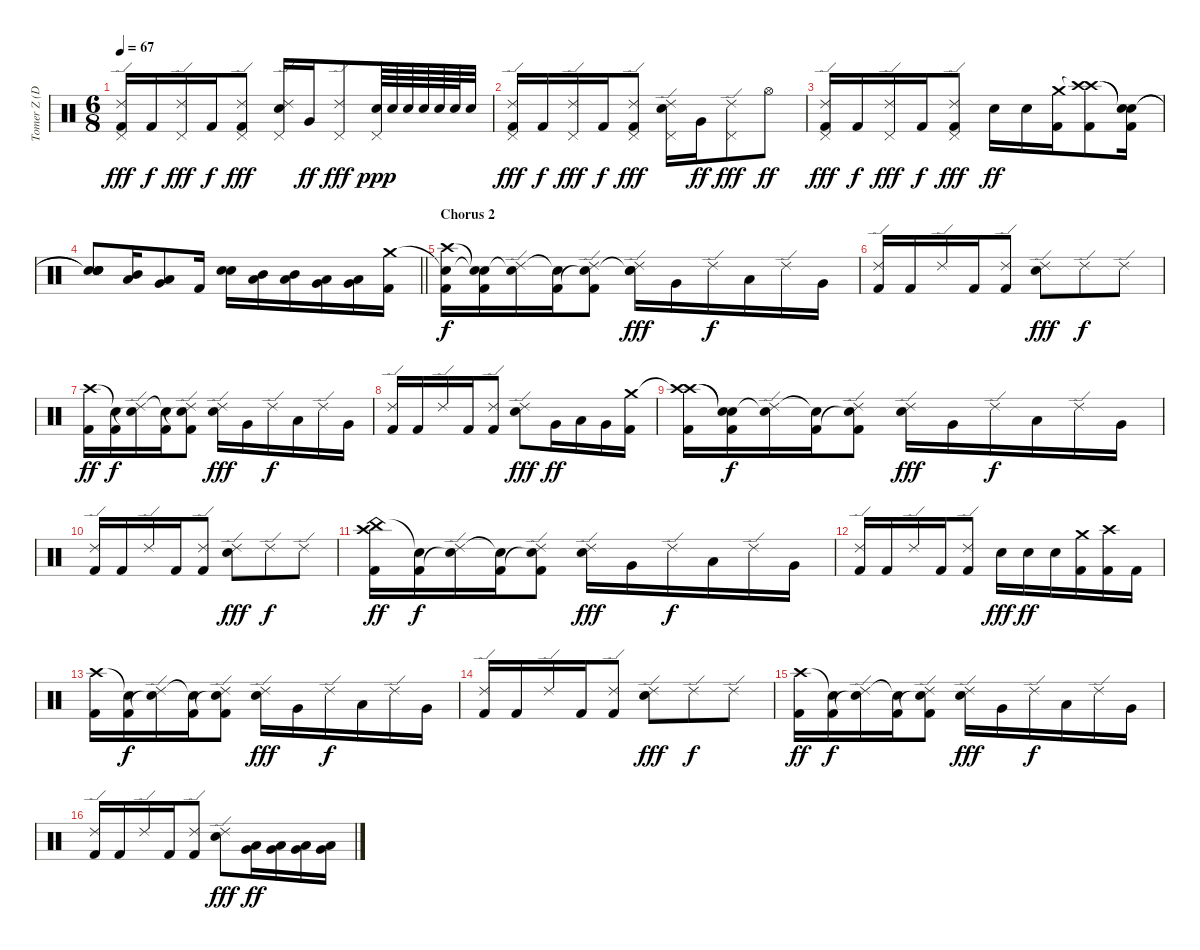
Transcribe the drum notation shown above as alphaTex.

\track ("Tomer Z (Drums)" "Tomer Z (D") {instrument percussion}
\staff {score}
\articulation defaults
\ts (6 8)
\tempo 67
\clef neutral
\ks c
("Pedal Hi-Hat (hit)" "Ride (edge) 2" "Kick (hit) 2").16{dy fff} "Kick (hit) 2".16{dy f} ("Pedal Hi-Hat (hit)" "Ride (edge) 2").16{dy fff} "Kick (hit) 2".16{dy f} ("Pedal Hi-Hat (hit)" "Ride (edge) 2" "Kick (hit) 2").8{dy fff} ("Pedal Hi-Hat (hit)" "Ride (edge) 2" "Snare (hit) 2").16 "Very Low Tom (hit)".16{dy ff} ("Pedal Hi-Hat (hit)" "Ride (edge) 2").8{dy fff} ("Pedal Hi-Hat (hit)" "Snare (hit) 2").64{dy ppp} "Snare (hit) 2".64 "Snare (hit) 2".64 "Snare (hit) 2".64 "Snare (hit) 2".64 "Snare (hit) 2".64 "Snare (hit) 2".32 |
("Pedal Hi-Hat (hit)" "Ride (edge) 2" "Kick (hit) 2").16{dy fff} "Kick (hit) 2".16{dy f} ("Pedal Hi-Hat (hit)" "Ride (edge) 2").16{dy fff} "Kick (hit) 2".16{dy f} ("Pedal Hi-Hat (hit)" "Ride (edge) 2" "Kick (hit) 2").8{dy fff} ("Pedal Hi-Hat (hit)" "Ride (edge) 2" "Snare (hit) 2").16 "Very Low Tom (hit)".16{dy ff} ("Pedal Hi-Hat (hit)" "Ride (edge) 2").8{dy fff} "Hi-Hat (open)".8{dy ff} |
("Pedal Hi-Hat (hit)" "Ride (edge) 2" "Kick (hit) 2").16{dy fff} "Kick (hit) 2".16{dy f} ("Pedal Hi-Hat (hit)" "Ride (edge) 2").16{dy fff} "Kick (hit) 2".16{dy f} ("Pedal Hi-Hat (hit)" "Ride (edge) 2" "Kick (hit) 2").8{dy fff} "Snare (hit) 2".16{dy ff} "Snare (hit) 2".16 ("Crash medium (hit)" "Kick (hit) 2").16 ("Crash high (hit)"{t} "Crash high (hit)" "Kick (hit) 2").8 ("Snare (hit)"{t} "Snare (hit)"{t} "Kick (hit) 2").16 |
\barLineRight lightlight
("Snare (hit)"{t} "Snare (hit)"{t} "Snare (hit) 2" "Snare (hit) 2").8 ("Mid Tom (hit)" "Low Tom (hit)").16 ("Low Tom (hit)" "Very Low Tom (hit)").8 "Kick (hit) 2".16 ("Snare (hit) 2" "Snare (hit) 2").16 ("Mid Tom (hit)" "Low Tom (hit)").16 ("Mid Tom (hit)" "Low Tom (hit)").16 ("Low Tom (hit)" "Very Low Tom (hit)").16 ("Low Tom (hit)" "Very Low Tom (hit)").16 ("Crash medium (hit)" "Kick (hit) 2").16 |
\section ("" "Chorus 2")
("Snare (hit)"{t} "Crash high (hit)" "Kick (hit) 2").16{dy f} ("Snare (hit)"{t} "Snare (hit)"{t} "Kick (hit) 2").16 ("Ride (edge) 2" "Snare (hit)"{t}).16 ("Snare (hit)"{t} "Kick (hit) 2").16 ("Ride (edge) 2" "Snare (hit)"{t} "Kick (hit) 2").8 ("Ride (edge) 2" "Snare (hit)"{t} "Snare (hit) 2").16{dy fff} "Very Low Tom (hit)".16 "Ride (edge) 2".16{dy f} "Low Tom (hit)".16 "Ride (edge) 2".16 "Very Low Tom (hit)".16 |
("Ride (edge) 2" "Kick (hit) 2").16 "Kick (hit) 2".16 "Ride (edge) 2".16 "Kick (hit) 2".16 ("Ride (edge) 2" "Kick (hit) 2").8 ("Ride (edge) 2" "Snare (hit) 2").8{dy fff} "Ride (edge) 2".8{dy f} "Ride (edge) 2".8 |
("Crash high (hit)" "Kick (hit) 2").16{dy ff} ("Snare (hit)"{t} "Kick (hit) 2").16{dy f} ("Ride (edge) 2" "Snare (hit)"{t}).16 ("Snare (hit)"{t} "Kick (hit) 2").16 ("Ride (edge) 2" "Snare (hit)"{t} "Kick (hit) 2").8 ("Ride (edge) 2" "Snare (hit) 2").16{dy fff} "Very Low Tom (hit)".16 "Ride (edge) 2".16{dy f} "Low Tom (hit)".16 "Ride (edge) 2".16 "Very Low Tom (hit)".16 |
("Ride (edge) 2" "Kick (hit) 2").16 "Kick (hit) 2".16 "Ride (edge) 2".16 "Kick (hit) 2".16 ("Ride (edge) 2" "Kick (hit) 2").8 ("Ride (edge) 2" "Snare (hit) 2").8{dy fff} "Very Low Tom (hit)".16{dy ff} "Low Tom (hit)".16 "Very Low Tom (hit)".16 ("Crash medium (hit)" "Kick (hit) 2").16 |
("Crash high (hit)"{t} "Crash high (hit)" "Kick (hit) 2").16 ("Snare (hit)"{t} "Snare (hit)"{t} "Kick (hit) 2").16{dy f} ("Ride (edge) 2" "Snare (hit)"{t}).16 ("Snare (hit)"{t} "Kick (hit) 2").16 ("Ride (edge) 2" "Snare (hit)"{t} "Kick (hit) 2").8 ("Ride (edge) 2" "Snare (hit) 2").16{dy fff} "Very Low Tom (hit)".16 "Ride (edge) 2".16{dy f} "Low Tom (hit)".16 "Ride (edge) 2".16 "Very Low Tom (hit)".16 |
("Ride (edge) 2" "Kick (hit) 2").16 "Kick (hit) 2".16 "Ride (edge) 2".16 "Kick (hit) 2".16 ("Ride (edge) 2" "Kick (hit) 2").8 ("Ride (edge) 2" "Snare (hit) 2").8{dy fff} "Ride (edge) 2".8{dy f} "Ride (edge) 2".8 |
("China (hit)" "Crash high (hit)" "Kick (hit) 2").16{dy ff} ("Snare (hit)"{t} "Kick (hit) 2").16{dy f} ("Ride (edge) 2" "Snare (hit)"{t}).16 ("Snare (hit)"{t} "Kick (hit) 2").16 ("Ride (edge) 2" "Snare (hit)"{t} "Kick (hit) 2").8 ("Ride (edge) 2" "Snare (hit) 2").16{dy fff} "Very Low Tom (hit)".16 "Ride (edge) 2".16{dy f} "Low Tom (hit)".16 "Ride (edge) 2".16 "Very Low Tom (hit)".16 |
("Ride (edge) 2" "Kick (hit) 2").16 "Kick (hit) 2".16 "Ride (edge) 2".16 "Kick (hit) 2".16 ("Ride (edge) 2" "Kick (hit) 2").8 "Snare (hit) 2".16{dy fff} "Snare (hit) 2".16{dy ff} "Snare (hit) 2".16 ("Crash medium (hit)" "Kick (hit) 2").16 ("Crash high (hit)" "Kick (hit) 2").16 "Kick (hit) 2".16 |
("Crash high (hit)" "Kick (hit) 2").16 ("Snare (hit)"{t} "Kick (hit) 2").16{dy f} ("Ride (edge) 2" "Snare (hit)"{t}).16 ("Snare (hit)"{t} "Kick (hit) 2").16 ("Ride (edge) 2" "Snare (hit)"{t} "Kick (hit) 2").8 ("Ride (edge) 2" "Snare (hit) 2").16{dy fff} "Very Low Tom (hit)".16 "Ride (edge) 2".16{dy f} "Low Tom (hit)".16 "Ride (edge) 2".16 "Very Low Tom (hit)".16 |
("Ride (edge) 2" "Kick (hit) 2").16 "Kick (hit) 2".16 "Ride (edge) 2".16 "Kick (hit) 2".16 ("Ride (edge) 2" "Kick (hit) 2").8 ("Ride (edge) 2" "Snare (hit) 2").8{dy fff} "Ride (edge) 2".8{dy f} "Ride (edge) 2".8 |
("Crash high (hit)" "Kick (hit) 2").16{dy ff} ("Snare (hit)"{t} "Kick (hit) 2").16{dy f} ("Ride (edge) 2" "Snare (hit)"{t}).16 ("Snare (hit)"{t} "Kick (hit) 2").16 ("Ride (edge) 2" "Snare (hit)"{t} "Kick (hit) 2").8 ("Ride (edge) 2" "Snare (hit) 2").16{dy fff} "Very Low Tom (hit)".16 "Ride (edge) 2".16{dy f} "Low Tom (hit)".16 "Ride (edge) 2".16 "Very Low Tom (hit)".16 |
("Ride (edge) 2" "Kick (hit) 2").16 "Kick (hit) 2".16 "Ride (edge) 2".16 "Kick (hit) 2".16 ("Ride (edge) 2" "Kick (hit) 2").8 ("Ride (edge) 2" "Snare (hit) 2").8{dy fff} ("Low Tom (hit)" "Very Low Tom (hit)").16{dy ff} ("Low Tom (hit)" "Very Low Tom (hit)").16 ("Low Tom (hit)" "Very Low Tom (hit)").16 ("Low Tom (hit)" "Very Low Tom (hit)").16
